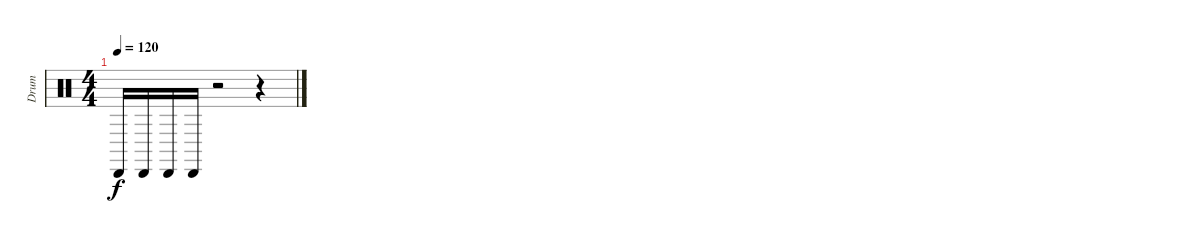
\track ("Drum" "Drum") {instrument percussion}
\staff {score}
\articulation defaults
\ts (4 4)
\tempo 120
\clef neutral
\ks c "Cabasa (hit)".16{dy f} "Cabasa (hit)".16 "Cabasa (hit)".16 "Cabasa (hit)".16
r.2 r.4
